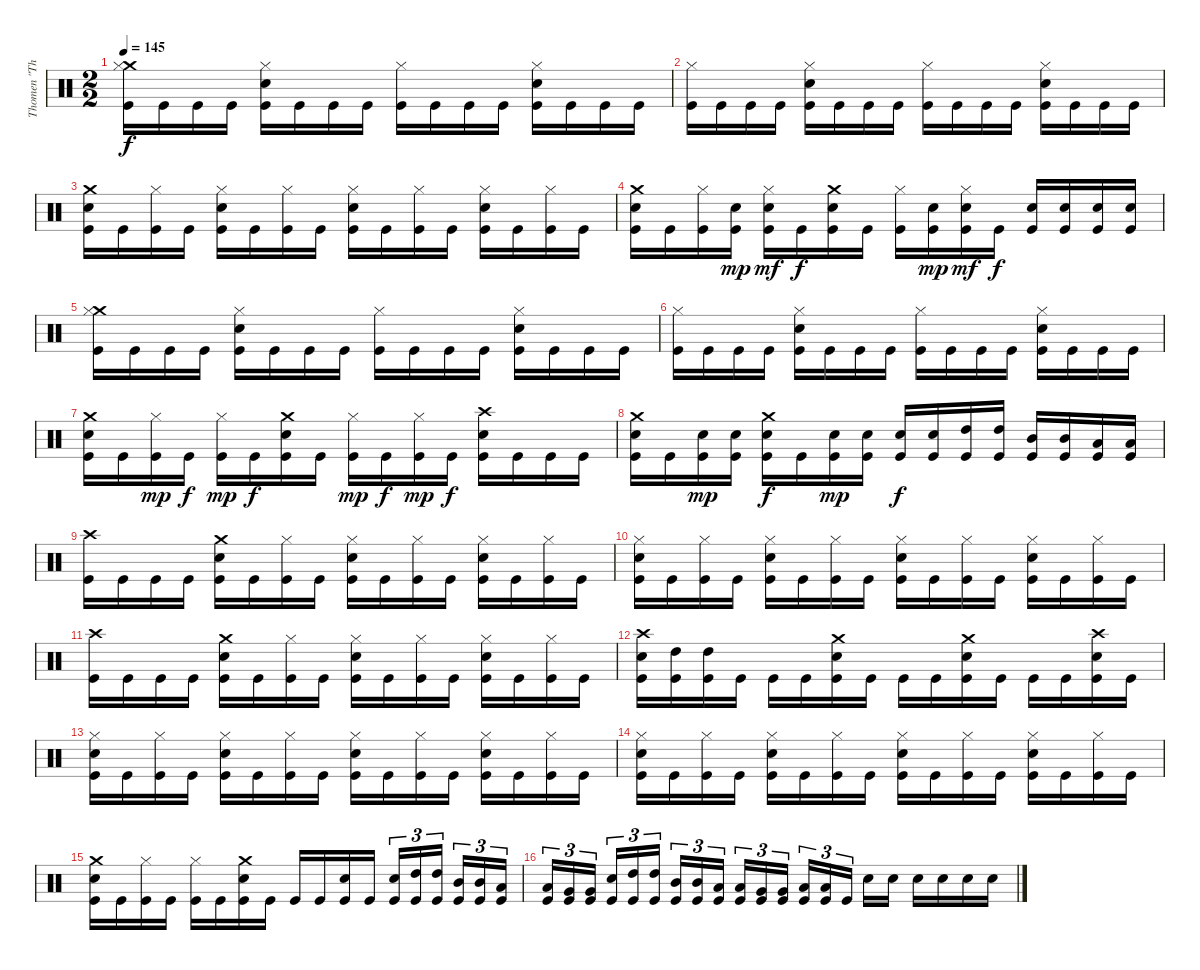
\track ("Thomen \"The Omen\" Stauch" "Thomen \"Th") {instrument percussion}
\staff {score}
\articulation defaults
\ts (2 2)
\tempo 145
\clef neutral
\ks c
("Crash medium (hit)" "Hi-Hat (closed)" "Kick (hit)").16{dy f} "Kick (hit)".16 "Kick (hit)".16 "Kick (hit)".16 ("Hi-Hat (closed)" "Snare (hit) 2" "Kick (hit)").16 "Kick (hit)".16 "Kick (hit)".16 "Kick (hit)".16 ("Hi-Hat (closed)" "Kick (hit)").16 "Kick (hit)".16 "Kick (hit)".16 "Kick (hit)".16 ("Hi-Hat (closed)" "Snare (hit) 2" "Kick (hit)").16 "Kick (hit)".16 "Kick (hit)".16 "Kick (hit)".16 |
("Hi-Hat (closed)" "Kick (hit)").16 "Kick (hit)".16 "Kick (hit)".16 "Kick (hit)".16 ("Hi-Hat (closed)" "Snare (hit) 2" "Kick (hit)").16 "Kick (hit)".16 "Kick (hit)".16 "Kick (hit)".16 ("Hi-Hat (closed)" "Kick (hit)").16 "Kick (hit)".16 "Kick (hit)".16 "Kick (hit)".16 ("Hi-Hat (closed)" "Snare (hit) 2" "Kick (hit)").16 "Kick (hit)".16 "Kick (hit)".16 "Kick (hit)".16 |
("Crash medium (hit)" "Snare (hit) 2" "Kick (hit)").16 "Kick (hit)".16 ("Hi-Hat (closed)" "Kick (hit)").16 "Kick (hit)".16 ("Hi-Hat (closed)" "Snare (hit) 2" "Kick (hit)").16 "Kick (hit)".16 ("Hi-Hat (closed)" "Kick (hit)").16 "Kick (hit)".16 ("Hi-Hat (closed)" "Snare (hit) 2" "Kick (hit)").16 "Kick (hit)".16 ("Hi-Hat (closed)" "Kick (hit)").16 "Kick (hit)".16 ("Hi-Hat (closed)" "Snare (hit) 2" "Kick (hit)").16 "Kick (hit)".16 ("Hi-Hat (closed)" "Kick (hit)").16 "Kick (hit)".16 |
("Crash medium (hit)" "Snare (hit) 2" "Kick (hit)").16 "Kick (hit)".16 ("Hi-Hat (closed)" "Kick (hit)").16 ("Snare (hit) 2" "Kick (hit)").16{dy mp} ("Hi-Hat (closed)" "Snare (hit) 2" "Kick (hit)").16{dy mf} "Kick (hit)".16{dy f} ("Crash medium (hit)" "Snare (hit) 2" "Kick (hit)").16 "Kick (hit)".16 ("Hi-Hat (closed)" "Kick (hit)").16 ("Snare (hit) 2" "Kick (hit)").16{dy mp} ("Hi-Hat (closed)" "Snare (hit) 2" "Kick (hit)").16{dy mf} "Kick (hit)".16{dy f} ("Snare (hit) 2" "Kick (hit)").16 ("Snare (hit) 2" "Kick (hit)").16 ("Snare (hit) 2" "Kick (hit)").16 ("Snare (hit) 2" "Kick (hit)").16 |
("Crash medium (hit)" "Hi-Hat (closed)" "Kick (hit)").16 "Kick (hit)".16 "Kick (hit)".16 "Kick (hit)".16 ("Hi-Hat (closed)" "Snare (hit) 2" "Kick (hit)").16 "Kick (hit)".16 "Kick (hit)".16 "Kick (hit)".16 ("Hi-Hat (closed)" "Kick (hit)").16 "Kick (hit)".16 "Kick (hit)".16 "Kick (hit)".16 ("Hi-Hat (closed)" "Snare (hit) 2" "Kick (hit)").16 "Kick (hit)".16 "Kick (hit)".16 "Kick (hit)".16 |
("Hi-Hat (closed)" "Kick (hit)").16 "Kick (hit)".16 "Kick (hit)".16 "Kick (hit)".16 ("Hi-Hat (closed)" "Snare (hit) 2" "Kick (hit)").16 "Kick (hit)".16 "Kick (hit)".16 "Kick (hit)".16 ("Hi-Hat (closed)" "Kick (hit)").16 "Kick (hit)".16 "Kick (hit)".16 "Kick (hit)".16 ("Hi-Hat (closed)" "Snare (hit) 2" "Kick (hit)").16 "Kick (hit)".16 "Kick (hit)".16 "Kick (hit)".16 |
("Crash medium (hit)" "Snare (hit) 2" "Kick (hit)").16 "Kick (hit)".16 ("Hi-Hat (closed)" "Kick (hit)").16{dy mp} "Kick (hit)".16{dy f} ("Hi-Hat (closed)" "Kick (hit)").16{dy mp} "Kick (hit)".16{dy f} ("Crash medium (hit)" "Snare (hit) 2" "Kick (hit)").16 "Kick (hit)".16 ("Hi-Hat (closed)" "Kick (hit)").16{dy mp} "Kick (hit)".16{dy f} ("Hi-Hat (closed)" "Kick (hit)").16{dy mp} "Kick (hit)".16{dy f} ("Crash high (hit)" "Snare (hit) 2" "Kick (hit)").16 "Kick (hit)".16 "Kick (hit)".16 "Kick (hit)".16 |
("Crash medium (hit)" "Snare (hit) 2" "Kick (hit)").16 "Kick (hit)".16 ("Snare (hit) 2" "Kick (hit)").16{dy mp} ("Snare (hit) 2" "Kick (hit)").16 ("Crash medium (hit)" "Snare (hit) 2" "Kick (hit)").16{dy f} "Kick (hit)".16 ("Snare (hit) 2" "Kick (hit)").16{dy mp} ("Snare (hit) 2" "Kick (hit)").16 ("Snare (hit) 2" "Kick (hit)").16{dy f} ("Snare (hit) 2" "Kick (hit)").16 ("High Tom (hit)" "Kick (hit)").16 ("High Tom (hit)" "Kick (hit)").16 ("Mid Tom (hit)" "Kick (hit)").16 ("Mid Tom (hit)" "Kick (hit)").16 ("Low Tom (hit)" "Kick (hit)").16 ("Low Tom (hit)" "Kick (hit)").16 |
("Crash high (hit)" "Kick (hit)").16 "Kick (hit)".16 "Kick (hit)".16 "Kick (hit)".16 ("Crash medium (hit)" "Snare (hit) 2" "Kick (hit)").16 "Kick (hit)".16 ("Hi-Hat (closed)" "Kick (hit)").16 "Kick (hit)".16 ("Hi-Hat (closed)" "Snare (hit) 2" "Kick (hit)").16 "Kick (hit)".16 ("Hi-Hat (closed)" "Kick (hit)").16 "Kick (hit)".16 ("Hi-Hat (closed)" "Snare (hit) 2" "Kick (hit)").16 "Kick (hit)".16 ("Hi-Hat (closed)" "Kick (hit)").16 "Kick (hit)".16 |
("Hi-Hat (closed)" "Snare (hit) 2" "Kick (hit)").16 "Kick (hit)".16 ("Hi-Hat (closed)" "Kick (hit)").16 "Kick (hit)".16 ("Hi-Hat (closed)" "Snare (hit) 2" "Kick (hit)").16 "Kick (hit)".16 ("Hi-Hat (closed)" "Kick (hit)").16 "Kick (hit)".16 ("Hi-Hat (closed)" "Snare (hit) 2" "Kick (hit)").16 "Kick (hit)".16 ("Hi-Hat (closed)" "Kick (hit)").16 "Kick (hit)".16 ("Hi-Hat (closed)" "Snare (hit) 2" "Kick (hit)").16 "Kick (hit)".16 ("Hi-Hat (closed)" "Kick (hit)").16 "Kick (hit)".16 |
("Crash high (hit)" "Kick (hit)").16 "Kick (hit)".16 "Kick (hit)".16 "Kick (hit)".16 ("Crash medium (hit)" "Snare (hit) 2" "Kick (hit)").16 "Kick (hit)".16 ("Hi-Hat (closed)" "Kick (hit)").16 "Kick (hit)".16 ("Hi-Hat (closed)" "Snare (hit) 2" "Kick (hit)").16 "Kick (hit)".16 ("Hi-Hat (closed)" "Kick (hit)").16 "Kick (hit)".16 ("Hi-Hat (closed)" "Snare (hit) 2" "Kick (hit)").16 "Kick (hit)".16 ("Hi-Hat (closed)" "Kick (hit)").16 "Kick (hit)".16 |
("Crash high (hit)" "Snare (hit) 2" "Kick (hit)").16 ("High Tom (hit)" "Kick (hit)").16 ("High Tom (hit)" "Kick (hit)").16 "Kick (hit)".16 "Kick (hit)".16 "Kick (hit)".16 ("Crash medium (hit)" "Snare (hit) 2" "Kick (hit)").16 "Kick (hit)".16 "Kick (hit)".16 "Kick (hit)".16 ("Crash medium (hit)" "Snare (hit) 2" "Kick (hit)").16 "Kick (hit)".16 "Kick (hit)".16 "Kick (hit)".16 ("Crash high (hit)" "Snare (hit) 2" "Kick (hit)").16 "Kick (hit)".16 |
("Hi-Hat (closed)" "Snare (hit) 2" "Kick (hit)").16 "Kick (hit)".16 ("Hi-Hat (closed)" "Kick (hit)").16 "Kick (hit)".16 ("Hi-Hat (closed)" "Snare (hit) 2" "Kick (hit)").16 "Kick (hit)".16 ("Hi-Hat (closed)" "Kick (hit)").16 "Kick (hit)".16 ("Hi-Hat (closed)" "Snare (hit) 2" "Kick (hit)").16 "Kick (hit)".16 ("Hi-Hat (closed)" "Kick (hit)").16 "Kick (hit)".16 ("Hi-Hat (closed)" "Snare (hit) 2" "Kick (hit)").16 "Kick (hit)".16 ("Hi-Hat (closed)" "Kick (hit)").16 "Kick (hit)".16 |
("Hi-Hat (closed)" "Snare (hit) 2" "Kick (hit)").16 "Kick (hit)".16 ("Hi-Hat (closed)" "Kick (hit)").16 "Kick (hit)".16 ("Hi-Hat (closed)" "Snare (hit) 2" "Kick (hit)").16 "Kick (hit)".16 ("Hi-Hat (closed)" "Kick (hit)").16 "Kick (hit)".16 ("Hi-Hat (closed)" "Snare (hit) 2" "Kick (hit)").16 "Kick (hit)".16 ("Hi-Hat (closed)" "Kick (hit)").16 "Kick (hit)".16 ("Hi-Hat (closed)" "Snare (hit) 2" "Kick (hit)").16 "Kick (hit)".16 ("Hi-Hat (closed)" "Kick (hit)").16 "Kick (hit)".16 |
("Crash medium (hit)" "Snare (hit) 2" "Kick (hit)").16 "Kick (hit)".16 ("Hi-Hat (closed)" "Kick (hit)").16 "Kick (hit)".16 ("Hi-Hat (closed)" "Kick (hit)").16 "Kick (hit)".16 ("Crash medium (hit)" "Snare (hit) 2" "Kick (hit)").16 "Kick (hit)".16 "Kick (hit)".16 "Kick (hit)".16 ("Snare (hit) 2" "Kick (hit)").16 "Kick (hit)".16 ("Snare (hit) 2" "Kick (hit)").16{tu (3 2)} ("High Tom (hit)" "Kick (hit)").16{tu (3 2)} ("High Tom (hit)" "Kick (hit)").16{tu (3 2)} ("Mid Tom (hit)" "Kick (hit)").16{tu (3 2)} ("Mid Tom (hit)" "Kick (hit)").16{tu (3 2)} ("Low Tom (hit)" "Kick (hit)").16{tu (3 2)} |
("Low Tom (hit)" "Kick (hit)").16{tu (3 2)} ("Very Low Tom (hit)" "Kick (hit)").16{tu (3 2)} ("Very Low Tom (hit)" "Kick (hit)").16{tu (3 2)} ("Snare (hit) 2" "Kick (hit)").16{tu (3 2)} ("High Tom (hit)" "Kick (hit)").16{tu (3 2)} ("High Tom (hit)" "Kick (hit)").16{tu (3 2)} ("Mid Tom (hit)" "Kick (hit)").16{tu (3 2)} ("Mid Tom (hit)" "Kick (hit)").16{tu (3 2)} ("Low Tom (hit)" "Kick (hit)").16{tu (3 2)} ("Low Tom (hit)" "Kick (hit)").16{tu (3 2)} ("Very Low Tom (hit)" "Kick (hit)").16{tu (3 2)} ("Very Low Tom (hit)" "Kick (hit)").16{tu (3 2)} ("Low Floor Tom (hit)" "Kick (hit)").16{tu (3 2)} ("Low Floor Tom (hit)" "Kick (hit)").16{tu (3 2)} "Kick (hit)".16{tu (3 2)} "Snare (hit) 2".16 "Snare (hit) 2".16 "Snare (hit) 2".16 "Snare (hit) 2".16 "Snare (hit) 2".16 "Snare (hit) 2".16
